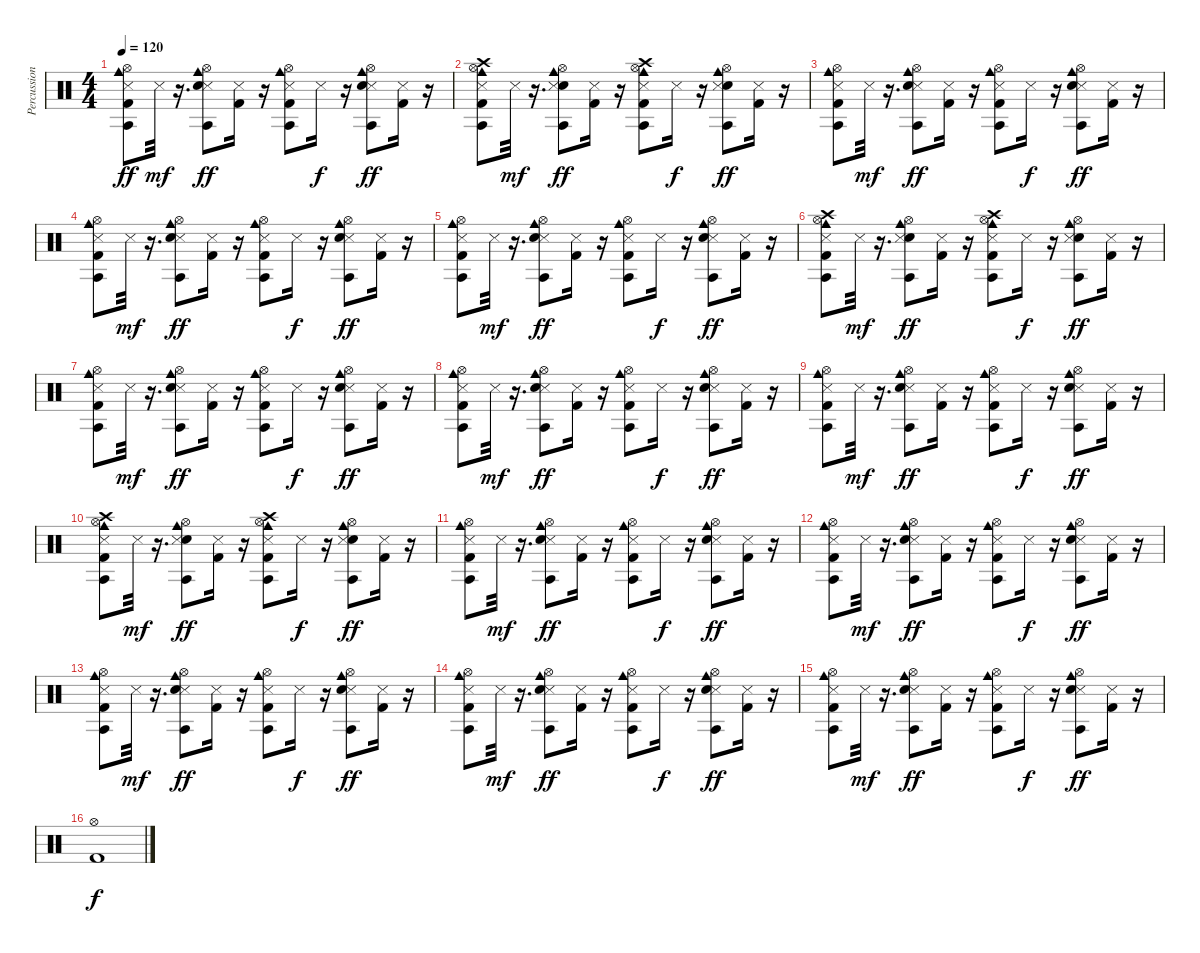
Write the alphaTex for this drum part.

\track ("Percussion" "Percussion") {instrument percussion}
\staff {score}
\articulation defaults
\ts (4 4)
\tempo 120
\clef neutral
\ks c
("Hi-Hat (open)" "Snare (side stick) 3" "Agogo tow (hit)" "Kick (hit) 2" "Cowbell medium (hit)").8{dy ff} "Snare (side stick) 3".32{dy mf} r.16{d} ("Hi-Hat (open)" "Snare (side stick) 3" "Agogo tow (hit)" "Snare (hit) 2" "Cowbell medium (hit)").8{dy ff} ("Snare (side stick) 3" "Kick (hit) 2").16 r.16 ("Hi-Hat (open)" "Snare (side stick) 3" "Agogo tow (hit)" "Kick (hit) 2" "Cowbell medium (hit)").8 "Snare (side stick) 3".16{dy f} r.16 ("Hi-Hat (open)" "Snare (side stick) 3" "Agogo tow (hit)" "Snare (hit) 2" "Cowbell medium (hit)").8{dy ff} ("Snare (side stick) 3" "Kick (hit) 2").16 r.16 |
("Hi-Hat (open)" "Kick (hit) 2" "Agogo tow (hit)" "Crash high (hit)" "Cowbell medium (hit)" "Snare (side stick) 3").8 "Snare (side stick) 3".32{dy mf} r.16{d} ("Hi-Hat (open)" "Snare (hit) 2" "Agogo tow (hit)" "Cowbell medium (hit)" "Snare (side stick) 3").8{dy ff} ("Kick (hit) 2" "Snare (side stick) 3").16 r.16 ("Crash high (hit)" "Hi-Hat (open)" "Kick (hit) 2" "Agogo tow (hit)" "Cowbell medium (hit)" "Snare (side stick) 3").8 "Snare (side stick) 3".16{dy f} r.16 ("Hi-Hat (open)" "Snare (hit) 2" "Agogo tow (hit)" "Cowbell medium (hit)" "Snare (side stick) 3").8{dy ff} ("Kick (hit) 2" "Snare (side stick) 3").16 r.16 |
("Hi-Hat (open)" "Cowbell medium (hit)" "Snare (side stick) 3" "Agogo tow (hit)" "Kick (hit) 2").8 "Snare (side stick) 3".32{dy mf} r.16{d} ("Hi-Hat (open)" "Cowbell medium (hit)" "Snare (side stick) 3" "Agogo tow (hit)" "Snare (hit) 2").8{dy ff} ("Snare (side stick) 3" "Kick (hit) 2").16 r.16 ("Hi-Hat (open)" "Cowbell medium (hit)" "Snare (side stick) 3" "Agogo tow (hit)" "Kick (hit) 2").8 "Snare (side stick) 3".16{dy f} r.16 ("Hi-Hat (open)" "Cowbell medium (hit)" "Snare (side stick) 3" "Agogo tow (hit)" "Snare (hit) 2").8{dy ff} ("Snare (side stick) 3" "Kick (hit) 2").16 r.16 |
("Hi-Hat (open)" "Snare (side stick) 3" "Agogo tow (hit)" "Kick (hit) 2" "Cowbell medium (hit)").8 "Snare (side stick) 3".32{dy mf} r.16{d} ("Hi-Hat (open)" "Snare (side stick) 3" "Agogo tow (hit)" "Snare (hit) 2" "Cowbell medium (hit)").8{dy ff} ("Snare (side stick) 3" "Kick (hit) 2").16 r.16 ("Hi-Hat (open)" "Snare (side stick) 3" "Agogo tow (hit)" "Kick (hit) 2" "Cowbell medium (hit)").8 "Snare (side stick) 3".16{dy f} r.16 ("Hi-Hat (open)" "Snare (side stick) 3" "Agogo tow (hit)" "Snare (hit) 2" "Cowbell medium (hit)").8{dy ff} ("Snare (side stick) 3" "Kick (hit) 2").16 r.16 |
("Hi-Hat (open)" "Snare (side stick) 3" "Agogo tow (hit)" "Kick (hit) 2" "Cowbell medium (hit)").8 "Snare (side stick) 3".32{dy mf} r.16{d} ("Hi-Hat (open)" "Snare (side stick) 3" "Agogo tow (hit)" "Snare (hit) 2" "Cowbell medium (hit)").8{dy ff} ("Snare (side stick) 3" "Kick (hit) 2").16 r.16 ("Hi-Hat (open)" "Snare (side stick) 3" "Agogo tow (hit)" "Kick (hit) 2" "Cowbell medium (hit)").8 "Snare (side stick) 3".16{dy f} r.16 ("Hi-Hat (open)" "Snare (side stick) 3" "Agogo tow (hit)" "Snare (hit) 2" "Cowbell medium (hit)").8{dy ff} ("Snare (side stick) 3" "Kick (hit) 2").16 r.16 |
("Hi-Hat (open)" "Kick (hit) 2" "Agogo tow (hit)" "Crash high (hit)" "Cowbell medium (hit)" "Snare (side stick) 3").8{volume 10} "Snare (side stick) 3".32{dy mf} r.16{d} ("Hi-Hat (open)" "Snare (hit) 2" "Agogo tow (hit)" "Cowbell medium (hit)" "Snare (side stick) 3").8{dy ff} ("Kick (hit) 2" "Snare (side stick) 3").16 r.16 ("Crash high (hit)" "Hi-Hat (open)" "Kick (hit) 2" "Agogo tow (hit)" "Cowbell medium (hit)" "Snare (side stick) 3").8 "Snare (side stick) 3".16{dy f} r.16 ("Hi-Hat (open)" "Snare (hit) 2" "Agogo tow (hit)" "Cowbell medium (hit)" "Snare (side stick) 3").8{dy ff} ("Kick (hit) 2" "Snare (side stick) 3").16 r.16 |
("Hi-Hat (open)" "Cowbell medium (hit)" "Snare (side stick) 3" "Agogo tow (hit)" "Kick (hit) 2").8 "Snare (side stick) 3".32{dy mf} r.16{d} ("Hi-Hat (open)" "Cowbell medium (hit)" "Snare (side stick) 3" "Agogo tow (hit)" "Snare (hit) 2").8{dy ff} ("Snare (side stick) 3" "Kick (hit) 2").16 r.16 ("Hi-Hat (open)" "Cowbell medium (hit)" "Snare (side stick) 3" "Agogo tow (hit)" "Kick (hit) 2").8 "Snare (side stick) 3".16{dy f} r.16 ("Hi-Hat (open)" "Cowbell medium (hit)" "Snare (side stick) 3" "Agogo tow (hit)" "Snare (hit) 2").8{dy ff} ("Snare (side stick) 3" "Kick (hit) 2").16 r.16 |
("Hi-Hat (open)" "Snare (side stick) 3" "Agogo tow (hit)" "Kick (hit) 2" "Cowbell medium (hit)").8{volume 8} "Snare (side stick) 3".32{dy mf} r.16{d} ("Hi-Hat (open)" "Snare (side stick) 3" "Agogo tow (hit)" "Snare (hit) 2" "Cowbell medium (hit)").8{dy ff} ("Snare (side stick) 3" "Kick (hit) 2").16 r.16 ("Hi-Hat (open)" "Snare (side stick) 3" "Agogo tow (hit)" "Kick (hit) 2" "Cowbell medium (hit)").8 "Snare (side stick) 3".16{dy f} r.16 ("Hi-Hat (open)" "Snare (side stick) 3" "Agogo tow (hit)" "Snare (hit) 2" "Cowbell medium (hit)").8{dy ff} ("Snare (side stick) 3" "Kick (hit) 2").16 r.16 |
("Hi-Hat (open)" "Snare (side stick) 3" "Agogo tow (hit)" "Kick (hit) 2" "Cowbell medium (hit)").8 "Snare (side stick) 3".32{dy mf} r.16{d} ("Hi-Hat (open)" "Snare (side stick) 3" "Agogo tow (hit)" "Snare (hit) 2" "Cowbell medium (hit)").8{dy ff} ("Snare (side stick) 3" "Kick (hit) 2").16 r.16 ("Hi-Hat (open)" "Snare (side stick) 3" "Agogo tow (hit)" "Kick (hit) 2" "Cowbell medium (hit)").8 "Snare (side stick) 3".16{dy f} r.16 ("Hi-Hat (open)" "Snare (side stick) 3" "Agogo tow (hit)" "Snare (hit) 2" "Cowbell medium (hit)").8{dy ff} ("Snare (side stick) 3" "Kick (hit) 2").16 r.16 |
("Hi-Hat (open)" "Kick (hit) 2" "Agogo tow (hit)" "Crash high (hit)" "Cowbell medium (hit)" "Snare (side stick) 3").8{volume 6} "Snare (side stick) 3".32{dy mf} r.16{d} ("Hi-Hat (open)" "Snare (hit) 2" "Agogo tow (hit)" "Cowbell medium (hit)" "Snare (side stick) 3").8{dy ff} ("Kick (hit) 2" "Snare (side stick) 3").16 r.16 ("Crash high (hit)" "Hi-Hat (open)" "Kick (hit) 2" "Agogo tow (hit)" "Cowbell medium (hit)" "Snare (side stick) 3").8 "Snare (side stick) 3".16{dy f} r.16 ("Hi-Hat (open)" "Snare (hit) 2" "Agogo tow (hit)" "Cowbell medium (hit)" "Snare (side stick) 3").8{dy ff} ("Kick (hit) 2" "Snare (side stick) 3").16 r.16 |
("Hi-Hat (open)" "Cowbell medium (hit)" "Snare (side stick) 3" "Agogo tow (hit)" "Kick (hit) 2").8 "Snare (side stick) 3".32{dy mf} r.16{d} ("Hi-Hat (open)" "Cowbell medium (hit)" "Snare (side stick) 3" "Agogo tow (hit)" "Snare (hit) 2").8{dy ff} ("Snare (side stick) 3" "Kick (hit) 2").16 r.16 ("Hi-Hat (open)" "Cowbell medium (hit)" "Snare (side stick) 3" "Agogo tow (hit)" "Kick (hit) 2").8 "Snare (side stick) 3".16{dy f} r.16 ("Hi-Hat (open)" "Cowbell medium (hit)" "Snare (side stick) 3" "Agogo tow (hit)" "Snare (hit) 2").8{dy ff} ("Snare (side stick) 3" "Kick (hit) 2").16 r.16 |
("Hi-Hat (open)" "Snare (side stick) 3" "Agogo tow (hit)" "Kick (hit) 2" "Cowbell medium (hit)").8{volume 4} "Snare (side stick) 3".32{dy mf} r.16{d} ("Hi-Hat (open)" "Snare (side stick) 3" "Agogo tow (hit)" "Snare (hit) 2" "Cowbell medium (hit)").8{dy ff} ("Snare (side stick) 3" "Kick (hit) 2").16 r.16 ("Hi-Hat (open)" "Snare (side stick) 3" "Agogo tow (hit)" "Kick (hit) 2" "Cowbell medium (hit)").8 "Snare (side stick) 3".16{dy f} r.16 ("Hi-Hat (open)" "Snare (side stick) 3" "Agogo tow (hit)" "Snare (hit) 2" "Cowbell medium (hit)").8{dy ff} ("Snare (side stick) 3" "Kick (hit) 2").16 r.16 |
("Hi-Hat (open)" "Snare (side stick) 3" "Agogo tow (hit)" "Kick (hit) 2" "Cowbell medium (hit)").8 "Snare (side stick) 3".32{dy mf} r.16{d} ("Hi-Hat (open)" "Snare (side stick) 3" "Agogo tow (hit)" "Snare (hit) 2" "Cowbell medium (hit)").8{dy ff} ("Snare (side stick) 3" "Kick (hit) 2").16 r.16 ("Hi-Hat (open)" "Snare (side stick) 3" "Agogo tow (hit)" "Kick (hit) 2" "Cowbell medium (hit)").8 "Snare (side stick) 3".16{dy f} r.16 ("Hi-Hat (open)" "Snare (side stick) 3" "Agogo tow (hit)" "Snare (hit) 2" "Cowbell medium (hit)").8{dy ff} ("Snare (side stick) 3" "Kick (hit) 2").16 r.16 |
("Hi-Hat (open)" "Snare (side stick) 3" "Agogo tow (hit)" "Kick (hit) 2" "Cowbell medium (hit)").8{volume 2} "Snare (side stick) 3".32{dy mf} r.16{d} ("Hi-Hat (open)" "Snare (side stick) 3" "Agogo tow (hit)" "Snare (hit) 2" "Cowbell medium (hit)").8{dy ff} ("Snare (side stick) 3" "Kick (hit) 2").16 r.16 ("Hi-Hat (open)" "Snare (side stick) 3" "Agogo tow (hit)" "Kick (hit) 2" "Cowbell medium (hit)").8 "Snare (side stick) 3".16{dy f} r.16 ("Hi-Hat (open)" "Snare (side stick) 3" "Agogo tow (hit)" "Snare (hit) 2" "Cowbell medium (hit)").8{dy ff} ("Snare (side stick) 3" "Kick (hit) 2").16 r.16 |
("Hi-Hat (open)" "Snare (side stick) 3" "Agogo tow (hit)" "Kick (hit) 2" "Cowbell medium (hit)").8 "Snare (side stick) 3".32{dy mf} r.16{d} ("Hi-Hat (open)" "Snare (side stick) 3" "Agogo tow (hit)" "Snare (hit) 2" "Cowbell medium (hit)").8{dy ff} ("Snare (side stick) 3" "Kick (hit) 2").16 r.16 ("Hi-Hat (open)" "Snare (side stick) 3" "Agogo tow (hit)" "Kick (hit) 2" "Cowbell medium (hit)").8 "Snare (side stick) 3".16{dy f} r.16 ("Hi-Hat (open)" "Snare (side stick) 3" "Agogo tow (hit)" "Snare (hit) 2" "Cowbell medium (hit)").8{dy ff} ("Snare (side stick) 3" "Kick (hit) 2").16 r.16 |
("Kick (hit) 2" "Hi-Hat (open)").1{dy f}
